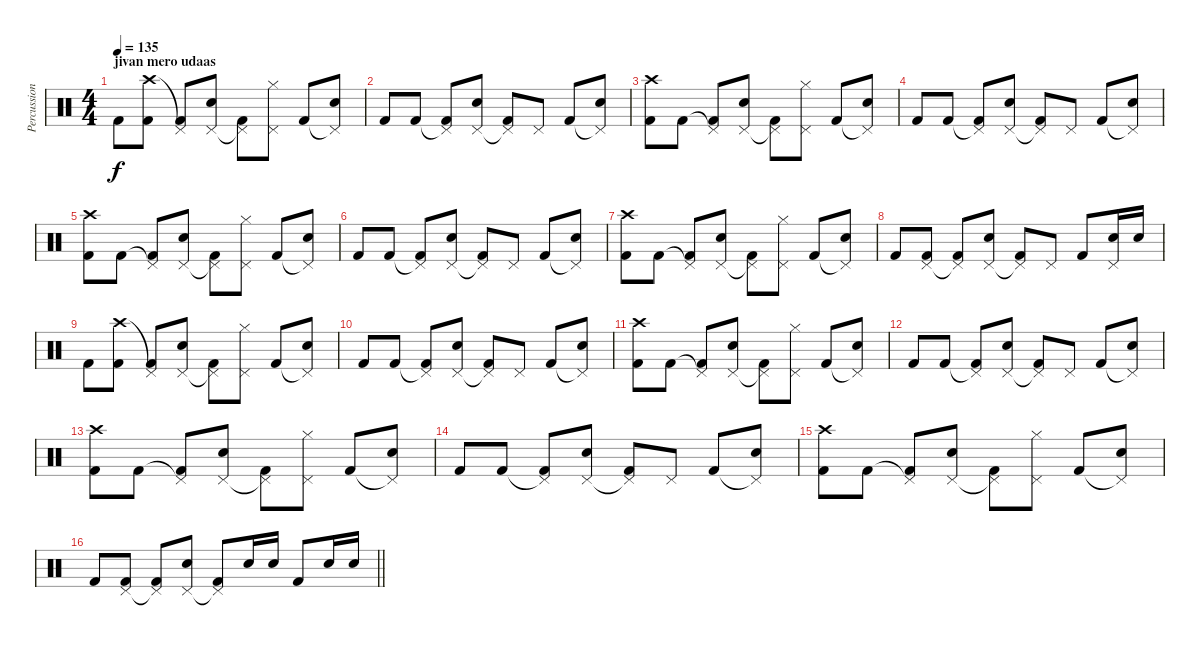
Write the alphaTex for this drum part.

\track ("Percussion" "Percussion") {instrument percussion}
\staff {score}
\articulation defaults
\ts (4 4)
\section ("" "jivan mero udaas")
\tempo 135
\clef neutral
\ks c "Kick (hit) 2".8{dy f}
("Crash high (hit)" "Kick (hit) 2").8 ("Pedal Hi-Hat (hit)"{t} "Kick (hit) 2").8 ("Pedal Hi-Hat (hit)" "Electric Snare (hit)").8 ("Pedal Hi-Hat (hit)"{t} "Kick (hit) 2").8 ("Pedal Hi-Hat (hit)" "Hi-Hat (closed)").8 "Kick (hit) 2".8 ("Pedal Hi-Hat (hit)"{t} "Electric Snare (hit)").8 |
"Kick (hit) 2".8 "Kick (hit) 2".8 ("Pedal Hi-Hat (hit)"{t} "Kick (hit) 2").8 ("Pedal Hi-Hat (hit)" "Electric Snare (hit)").8 ("Pedal Hi-Hat (hit)"{t} "Kick (hit) 2").8 "Pedal Hi-Hat (hit)".8 "Kick (hit) 2".8 ("Pedal Hi-Hat (hit)"{t} "Electric Snare (hit)").8 |
("Crash high (hit)" "Kick (hit) 2").8 "Kick (hit) 2".8 ("Pedal Hi-Hat (hit)"{t} "Kick (hit) 2").8 ("Pedal Hi-Hat (hit)" "Electric Snare (hit)").8 ("Pedal Hi-Hat (hit)"{t} "Kick (hit) 2").8 ("Pedal Hi-Hat (hit)" "Hi-Hat (closed)").8 "Kick (hit) 2".8 ("Pedal Hi-Hat (hit)"{t} "Electric Snare (hit)").8 |
"Kick (hit) 2".8 "Kick (hit) 2".8 ("Pedal Hi-Hat (hit)"{t} "Kick (hit) 2").8 ("Pedal Hi-Hat (hit)" "Electric Snare (hit)").8 ("Pedal Hi-Hat (hit)"{t} "Kick (hit) 2").8 "Pedal Hi-Hat (hit)".8 "Kick (hit) 2".8 ("Pedal Hi-Hat (hit)"{t} "Electric Snare (hit)").8 |
("Crash high (hit)" "Kick (hit) 2").8 "Kick (hit) 2".8 ("Pedal Hi-Hat (hit)"{t} "Kick (hit) 2").8 ("Pedal Hi-Hat (hit)" "Electric Snare (hit)").8 ("Pedal Hi-Hat (hit)"{t} "Kick (hit) 2").8 ("Pedal Hi-Hat (hit)" "Hi-Hat (closed)").8 "Kick (hit) 2".8 ("Pedal Hi-Hat (hit)"{t} "Electric Snare (hit)").8 |
"Kick (hit) 2".8 "Kick (hit) 2".8 ("Pedal Hi-Hat (hit)"{t} "Kick (hit) 2").8 ("Pedal Hi-Hat (hit)" "Electric Snare (hit)").8 ("Pedal Hi-Hat (hit)"{t} "Kick (hit) 2").8 "Pedal Hi-Hat (hit)".8 "Kick (hit) 2".8 ("Pedal Hi-Hat (hit)"{t} "Electric Snare (hit)").8 |
("Crash high (hit)" "Kick (hit) 2").8 "Kick (hit) 2".8 ("Pedal Hi-Hat (hit)"{t} "Kick (hit) 2").8 ("Pedal Hi-Hat (hit)" "Electric Snare (hit)").8 ("Pedal Hi-Hat (hit)"{t} "Kick (hit) 2").8 ("Pedal Hi-Hat (hit)" "Hi-Hat (closed)").8 "Kick (hit) 2".8 ("Pedal Hi-Hat (hit)"{t} "Electric Snare (hit)").8 |
"Kick (hit) 2".8 ("Pedal Hi-Hat (hit)" "Kick (hit) 2").8 ("Pedal Hi-Hat (hit)"{t} "Kick (hit) 2").8 ("Pedal Hi-Hat (hit)" "Electric Snare (hit)").8 ("Pedal Hi-Hat (hit)"{t} "Kick (hit) 2").8 "Pedal Hi-Hat (hit)".8 "Kick (hit) 2".8 ("Pedal Hi-Hat (hit)" "Electric Snare (hit)").16 "Electric Snare (hit)".16 |
"Kick (hit) 2".8 ("Crash high (hit)" "Kick (hit) 2").8 ("Pedal Hi-Hat (hit)"{t} "Kick (hit) 2").8 ("Pedal Hi-Hat (hit)" "Electric Snare (hit)").8 ("Pedal Hi-Hat (hit)"{t} "Kick (hit) 2").8 ("Pedal Hi-Hat (hit)" "Hi-Hat (closed)").8 "Kick (hit) 2".8 ("Pedal Hi-Hat (hit)"{t} "Electric Snare (hit)").8 |
"Kick (hit) 2".8 "Kick (hit) 2".8 ("Pedal Hi-Hat (hit)"{t} "Kick (hit) 2").8 ("Pedal Hi-Hat (hit)" "Electric Snare (hit)").8 ("Pedal Hi-Hat (hit)"{t} "Kick (hit) 2").8 "Pedal Hi-Hat (hit)".8 "Kick (hit) 2".8 ("Pedal Hi-Hat (hit)"{t} "Electric Snare (hit)").8 |
("Crash high (hit)" "Kick (hit) 2").8 "Kick (hit) 2".8 ("Pedal Hi-Hat (hit)"{t} "Kick (hit) 2").8 ("Pedal Hi-Hat (hit)" "Electric Snare (hit)").8 ("Pedal Hi-Hat (hit)"{t} "Kick (hit) 2").8 ("Pedal Hi-Hat (hit)" "Hi-Hat (closed)").8 "Kick (hit) 2".8 ("Pedal Hi-Hat (hit)"{t} "Electric Snare (hit)").8 |
"Kick (hit) 2".8 "Kick (hit) 2".8 ("Pedal Hi-Hat (hit)"{t} "Kick (hit) 2").8 ("Pedal Hi-Hat (hit)" "Electric Snare (hit)").8 ("Pedal Hi-Hat (hit)"{t} "Kick (hit) 2").8 "Pedal Hi-Hat (hit)".8 "Kick (hit) 2".8 ("Pedal Hi-Hat (hit)"{t} "Electric Snare (hit)").8 |
("Crash high (hit)" "Kick (hit) 2").8 "Kick (hit) 2".8 ("Pedal Hi-Hat (hit)"{t} "Kick (hit) 2").8 ("Pedal Hi-Hat (hit)" "Electric Snare (hit)").8 ("Pedal Hi-Hat (hit)"{t} "Kick (hit) 2").8 ("Pedal Hi-Hat (hit)" "Hi-Hat (closed)").8 "Kick (hit) 2".8 ("Pedal Hi-Hat (hit)"{t} "Electric Snare (hit)").8 |
"Kick (hit) 2".8 "Kick (hit) 2".8 ("Pedal Hi-Hat (hit)"{t} "Kick (hit) 2").8 ("Pedal Hi-Hat (hit)" "Electric Snare (hit)").8 ("Pedal Hi-Hat (hit)"{t} "Kick (hit) 2").8 "Pedal Hi-Hat (hit)".8 "Kick (hit) 2".8 ("Pedal Hi-Hat (hit)"{t} "Electric Snare (hit)").8 |
("Crash high (hit)" "Kick (hit) 2").8 "Kick (hit) 2".8 ("Pedal Hi-Hat (hit)"{t} "Kick (hit) 2").8 ("Pedal Hi-Hat (hit)" "Electric Snare (hit)").8 ("Pedal Hi-Hat (hit)"{t} "Kick (hit) 2").8 ("Pedal Hi-Hat (hit)" "Hi-Hat (closed)").8 "Kick (hit) 2".8 ("Pedal Hi-Hat (hit)"{t} "Electric Snare (hit)").8 |
\barLineRight lightlight "Kick (hit) 2".8
("Pedal Hi-Hat (hit)" "Kick (hit) 2").8 ("Pedal Hi-Hat (hit)"{t} "Kick (hit) 2").8 ("Pedal Hi-Hat (hit)" "Electric Snare (hit)").8 ("Pedal Hi-Hat (hit)"{t} "Kick (hit) 2").8 "Electric Snare (hit)".16 "Electric Snare (hit)".16 "Kick (hit) 2".8 "Electric Snare (hit)".16 "Electric Snare (hit)".16
